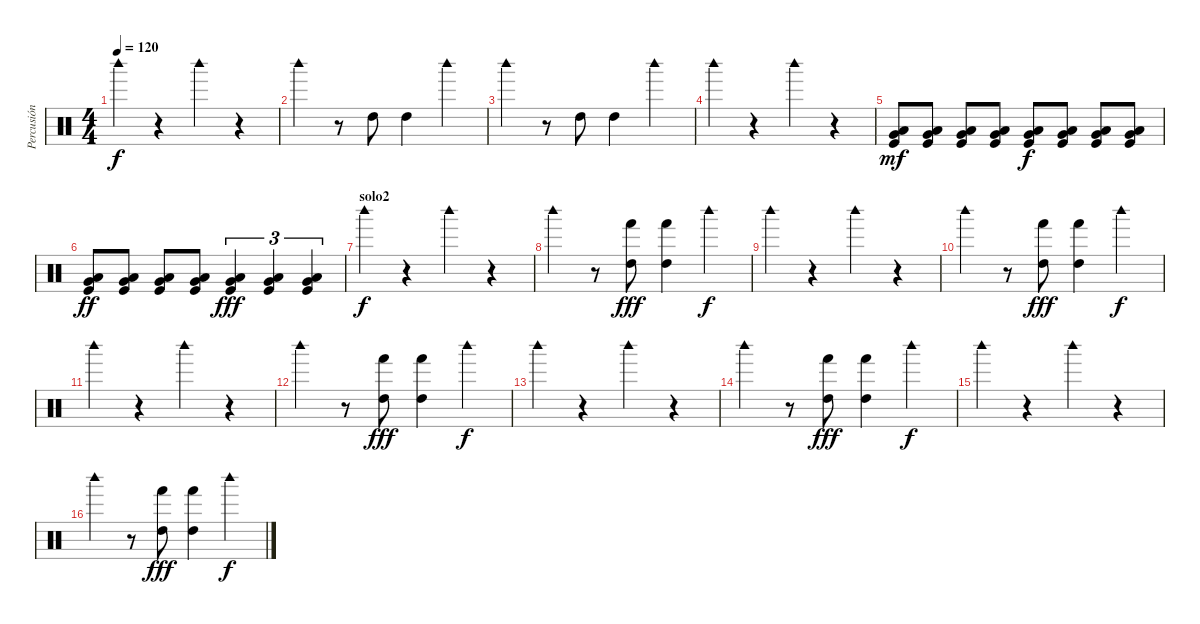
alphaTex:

\track ("Percusión" "Percusión") {instrument percussion}
\staff {score}
\articulation defaults
\ts (4 4)
\tempo 120
\clef neutral
\ks c "Woodblock high (hit)".4{dy f}
r.4 "Woodblock high (hit)".4 r.4 |
"Woodblock high (hit)".4 r.8 "High Tom (hit)".8 "High Tom (hit)".4 "Woodblock high (hit)".4 |
"Woodblock high (hit)".4 r.8 "High Tom (hit)".8 "High Tom (hit)".4 "Woodblock high (hit)".4 |
"Woodblock high (hit)".4 r.4 "Woodblock high (hit)".4 r.4 |
("Very Low Tom (hit)" "Low Floor Tom (hit)" "Kick (hit)").8{dy mf} ("Very Low Tom (hit)" "Low Floor Tom (hit)" "Kick (hit)").8 ("Very Low Tom (hit)" "Low Floor Tom (hit)" "Kick (hit)").8 ("Very Low Tom (hit)" "Low Floor Tom (hit)" "Kick (hit)").8 ("Very Low Tom (hit)" "Low Floor Tom (hit)" "Kick (hit)").8{dy f} ("Very Low Tom (hit)" "Low Floor Tom (hit)" "Kick (hit)").8 ("Very Low Tom (hit)" "Low Floor Tom (hit)" "Kick (hit)").8 ("Very Low Tom (hit)" "Low Floor Tom (hit)" "Kick (hit)").8 |
("Very Low Tom (hit)" "Low Floor Tom (hit)" "Kick (hit)").8{dy ff} ("Very Low Tom (hit)" "Low Floor Tom (hit)" "Kick (hit)").8 ("Very Low Tom (hit)" "Low Floor Tom (hit)" "Kick (hit)").8 ("Very Low Tom (hit)" "Low Floor Tom (hit)" "Kick (hit)").8 ("Very Low Tom (hit)" "Low Floor Tom (hit)" "Kick (hit)").4{tu (3 2) dy fff} ("Very Low Tom (hit)" "Low Floor Tom (hit)" "Kick (hit)").4{tu (3 2)} ("Very Low Tom (hit)" "Low Floor Tom (hit)" "Kick (hit)").4{tu (3 2)} |
\section ("" "solo2")
"Woodblock high (hit)".4{dy f} r.4 "Woodblock high (hit)".4 r.4 |
"Woodblock high (hit)".4 r.8 ("Hand (hit)" "High Tom (hit)").8{dy fff} ("Hand (hit)" "High Tom (hit)").4 "Woodblock high (hit)".4{dy f} |
"Woodblock high (hit)".4 r.4 "Woodblock high (hit)".4 r.4 |
"Woodblock high (hit)".4 r.8 ("Hand (hit)" "High Tom (hit)").8{dy fff} ("Hand (hit)" "High Tom (hit)").4 "Woodblock high (hit)".4{dy f} |
"Woodblock high (hit)".4 r.4 "Woodblock high (hit)".4 r.4 |
"Woodblock high (hit)".4 r.8 ("Hand (hit)" "High Tom (hit)").8{dy fff} ("Hand (hit)" "High Tom (hit)").4 "Woodblock high (hit)".4{dy f} |
"Woodblock high (hit)".4 r.4 "Woodblock high (hit)".4 r.4 |
"Woodblock high (hit)".4 r.8 ("Hand (hit)" "High Tom (hit)").8{dy fff} ("Hand (hit)" "High Tom (hit)").4 "Woodblock high (hit)".4{dy f} |
"Woodblock high (hit)".4 r.4 "Woodblock high (hit)".4 r.4 |
"Woodblock high (hit)".4 r.8 ("Hand (hit)" "High Tom (hit)").8{dy fff} ("Hand (hit)" "High Tom (hit)").4 "Woodblock high (hit)".4{dy f}
